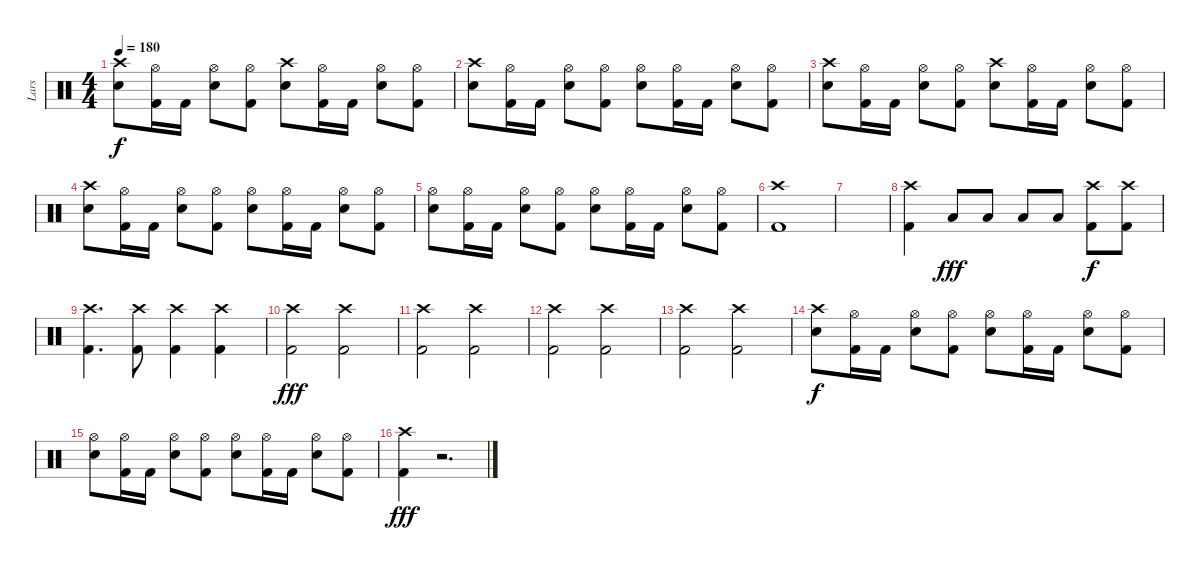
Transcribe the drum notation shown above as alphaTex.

\track ("Lars" "Lars") {instrument percussion}
\staff {score}
\articulation defaults
\ts (4 4)
\tempo 180
\clef neutral
\ks c
("Snare (hit) 2" "Crash high (hit)").8{dy f} ("Kick (hit) 2" "Hi-Hat (open)").16 "Kick (hit) 2".16 ("Snare (hit) 2" "Hi-Hat (open)").8 ("Kick (hit) 2" "Hi-Hat (open)").8 ("Snare (hit) 2" "Crash high (hit)").8 ("Kick (hit) 2" "Hi-Hat (open)").16 "Kick (hit) 2".16 ("Snare (hit) 2" "Hi-Hat (open)").8 ("Kick (hit) 2" "Hi-Hat (open)").8 |
("Snare (hit) 2" "Crash high (hit)").8 ("Kick (hit) 2" "Hi-Hat (open)").16 "Kick (hit) 2".16 ("Snare (hit) 2" "Hi-Hat (open)").8 ("Kick (hit) 2" "Hi-Hat (open)").8 ("Snare (hit) 2" "Hi-Hat (open)").8 ("Kick (hit) 2" "Hi-Hat (open)").16 "Kick (hit) 2".16 ("Snare (hit) 2" "Hi-Hat (open)").8 ("Kick (hit) 2" "Hi-Hat (open)").8 |
("Snare (hit) 2" "Crash high (hit)").8 ("Kick (hit) 2" "Hi-Hat (open)").16 "Kick (hit) 2".16 ("Snare (hit) 2" "Hi-Hat (open)").8 ("Kick (hit) 2" "Hi-Hat (open)").8 ("Snare (hit) 2" "Crash high (hit)").8 ("Kick (hit) 2" "Hi-Hat (open)").16 "Kick (hit) 2".16 ("Snare (hit) 2" "Hi-Hat (open)").8 ("Kick (hit) 2" "Hi-Hat (open)").8 |
("Snare (hit) 2" "Crash high (hit)").8 ("Kick (hit) 2" "Hi-Hat (open)").16 "Kick (hit) 2".16 ("Snare (hit) 2" "Hi-Hat (open)").8 ("Kick (hit) 2" "Hi-Hat (open)").8 ("Snare (hit) 2" "Hi-Hat (open)").8 ("Kick (hit) 2" "Hi-Hat (open)").16 "Kick (hit) 2".16 ("Snare (hit) 2" "Hi-Hat (open)").8 ("Kick (hit) 2" "Hi-Hat (open)").8 |
("Snare (hit) 2" "Hi-Hat (open)").8 ("Kick (hit) 2" "Hi-Hat (open)").16 "Kick (hit) 2".16 ("Snare (hit) 2" "Hi-Hat (open)").8 ("Kick (hit) 2" "Hi-Hat (open)").8 ("Snare (hit) 2" "Hi-Hat (open)").8 ("Kick (hit) 2" "Hi-Hat (open)").16 "Kick (hit) 2".16 ("Snare (hit) 2" "Hi-Hat (open)").8 ("Kick (hit) 2" "Hi-Hat (open)").8 |
("Kick (hit) 2" "Crash high (hit)").1 |
|
("Kick (hit) 2" "Crash high (hit)").4 "Low Tom (hit)".8{dy fff} "Low Tom (hit)".8 "Low Tom (hit)".8 "Low Tom (hit)".8 ("Kick (hit) 2" "Crash high (hit)").8{dy f} ("Kick (hit) 2" "Crash high (hit)").8 |
("Kick (hit) 2" "Crash high (hit)").4{d} ("Kick (hit) 2" "Crash high (hit)").8 ("Kick (hit) 2" "Crash high (hit)").4 ("Kick (hit) 2" "Crash high (hit)").4 |
("Kick (hit) 2" "Crash high (hit)").2{dy fff} ("Kick (hit) 2" "Crash high (hit)").2 |
("Kick (hit) 2" "Crash high (hit)").2 ("Kick (hit) 2" "Crash high (hit)").2 |
("Kick (hit) 2" "Crash high (hit)").2 ("Kick (hit) 2" "Crash high (hit)").2 |
("Kick (hit) 2" "Crash high (hit)").2 ("Kick (hit) 2" "Crash high (hit)").2 |
("Snare (hit) 2" "Crash high (hit)").8{dy f} ("Kick (hit) 2" "Hi-Hat (open)").16 "Kick (hit) 2".16 ("Snare (hit) 2" "Hi-Hat (open)").8 ("Kick (hit) 2" "Hi-Hat (open)").8 ("Snare (hit) 2" "Hi-Hat (open)").8 ("Kick (hit) 2" "Hi-Hat (open)").16 "Kick (hit) 2".16 ("Snare (hit) 2" "Hi-Hat (open)").8 ("Kick (hit) 2" "Hi-Hat (open)").8 |
("Snare (hit) 2" "Hi-Hat (open)").8 ("Kick (hit) 2" "Hi-Hat (open)").16 "Kick (hit) 2".16 ("Snare (hit) 2" "Hi-Hat (open)").8 ("Kick (hit) 2" "Hi-Hat (open)").8 ("Snare (hit) 2" "Hi-Hat (open)").8 ("Kick (hit) 2" "Hi-Hat (open)").16 "Kick (hit) 2".16 ("Snare (hit) 2" "Hi-Hat (open)").8 ("Kick (hit) 2" "Hi-Hat (open)").8 |
("Kick (hit) 2" "Crash high (hit)").4{dy fff} r.2{d}
